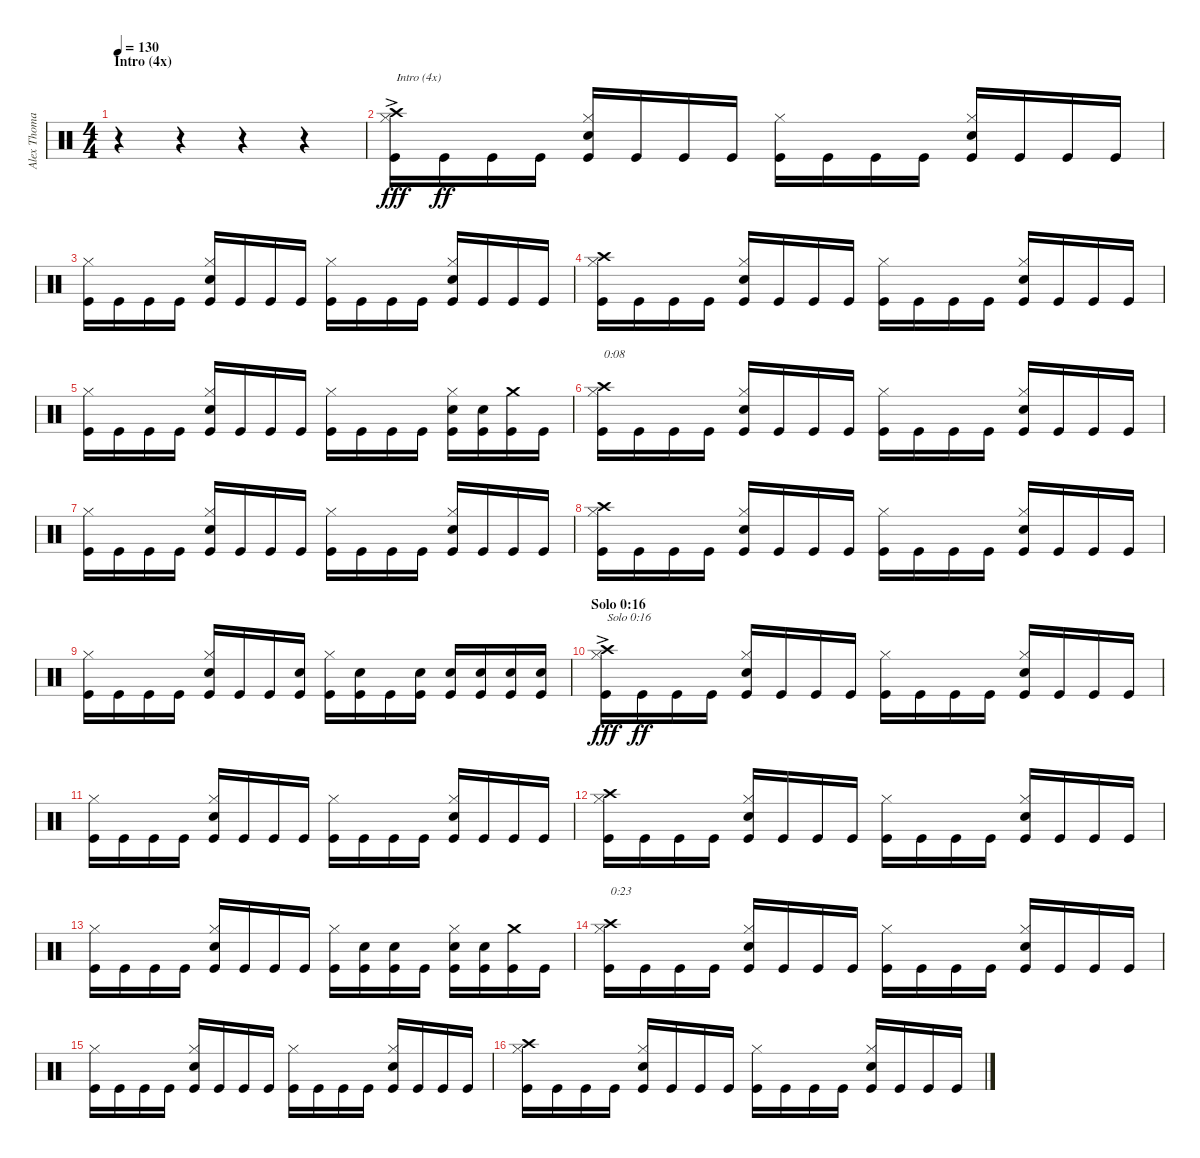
\track ("Alex Thomas (Drums)" "Alex Thoma") {instrument percussion}
\staff {score}
\articulation defaults
\ts (4 4)
\section ("" "Intro (4x)")
\tempo 130
\clef neutral
\ks c
r.4{dy fff} r.4 r.4 r.4 |
("Kick (hit)" "Hi-Hat (closed)" "Crash high (hit)"{ac}).16{txt "Intro (4x)"} "Kick (hit)".16{dy ff} "Kick (hit)".16 "Kick (hit)".16 ("Kick (hit)" "Electric Snare (hit)" "Hi-Hat (closed)").16 "Kick (hit)".16 "Kick (hit)".16 "Kick (hit)".16 ("Kick (hit)" "Hi-Hat (closed)").16 "Kick (hit)".16 "Kick (hit)".16 "Kick (hit)".16 ("Kick (hit)" "Electric Snare (hit)" "Hi-Hat (closed)").16 "Kick (hit)".16 "Kick (hit)".16 "Kick (hit)".16 |
("Kick (hit)" "Hi-Hat (closed)").16 "Kick (hit)".16 "Kick (hit)".16 "Kick (hit)".16 ("Kick (hit)" "Electric Snare (hit)" "Hi-Hat (closed)").16 "Kick (hit)".16 "Kick (hit)".16 "Kick (hit)".16 ("Kick (hit)" "Hi-Hat (closed)").16 "Kick (hit)".16 "Kick (hit)".16 "Kick (hit)".16 ("Kick (hit)" "Electric Snare (hit)" "Hi-Hat (closed)").16 "Kick (hit)".16 "Kick (hit)".16 "Kick (hit)".16 |
("Kick (hit)" "Hi-Hat (closed)" "Crash high (hit)").16 "Kick (hit)".16 "Kick (hit)".16 "Kick (hit)".16 ("Kick (hit)" "Electric Snare (hit)" "Hi-Hat (closed)").16 "Kick (hit)".16 "Kick (hit)".16 "Kick (hit)".16 ("Kick (hit)" "Hi-Hat (closed)").16 "Kick (hit)".16 "Kick (hit)".16 "Kick (hit)".16 ("Kick (hit)" "Electric Snare (hit)" "Hi-Hat (closed)").16 "Kick (hit)".16 "Kick (hit)".16 "Kick (hit)".16 |
("Kick (hit)" "Hi-Hat (closed)").16 "Kick (hit)".16 "Kick (hit)".16 "Kick (hit)".16 ("Kick (hit)" "Electric Snare (hit)" "Hi-Hat (closed)").16 "Kick (hit)".16 "Kick (hit)".16 "Kick (hit)".16 ("Kick (hit)" "Hi-Hat (closed)").16 "Kick (hit)".16 "Kick (hit)".16 "Kick (hit)".16 ("Kick (hit)" "Electric Snare (hit)" "Hi-Hat (closed)").16 ("Kick (hit)" "Electric Snare (hit)").16 ("Kick (hit)" "Crash medium (hit)").16 "Kick (hit)".16 |
("Kick (hit)" "Hi-Hat (closed)" "Crash high (hit)").16{txt "0:08"} "Kick (hit)".16 "Kick (hit)".16 "Kick (hit)".16 ("Kick (hit)" "Electric Snare (hit)" "Hi-Hat (closed)").16 "Kick (hit)".16 "Kick (hit)".16 "Kick (hit)".16 ("Kick (hit)" "Hi-Hat (closed)").16 "Kick (hit)".16 "Kick (hit)".16 "Kick (hit)".16 ("Kick (hit)" "Electric Snare (hit)" "Hi-Hat (closed)").16 "Kick (hit)".16 "Kick (hit)".16 "Kick (hit)".16 |
("Kick (hit)" "Hi-Hat (closed)").16 "Kick (hit)".16 "Kick (hit)".16 "Kick (hit)".16 ("Kick (hit)" "Electric Snare (hit)" "Hi-Hat (closed)").16 "Kick (hit)".16 "Kick (hit)".16 "Kick (hit)".16 ("Kick (hit)" "Hi-Hat (closed)").16 "Kick (hit)".16 "Kick (hit)".16 "Kick (hit)".16 ("Kick (hit)" "Electric Snare (hit)" "Hi-Hat (closed)").16 "Kick (hit)".16 "Kick (hit)".16 "Kick (hit)".16 |
("Kick (hit)" "Hi-Hat (closed)" "Crash high (hit)").16 "Kick (hit)".16 "Kick (hit)".16 "Kick (hit)".16 ("Kick (hit)" "Electric Snare (hit)" "Hi-Hat (closed)").16 "Kick (hit)".16 "Kick (hit)".16 "Kick (hit)".16 ("Kick (hit)" "Hi-Hat (closed)").16 "Kick (hit)".16 "Kick (hit)".16 "Kick (hit)".16 ("Kick (hit)" "Electric Snare (hit)" "Hi-Hat (closed)").16 "Kick (hit)".16 "Kick (hit)".16 "Kick (hit)".16 |
("Kick (hit)" "Hi-Hat (closed)").16 "Kick (hit)".16 "Kick (hit)".16 "Kick (hit)".16 ("Kick (hit)" "Electric Snare (hit)" "Hi-Hat (closed)").16 "Kick (hit)".16 "Kick (hit)".16 ("Kick (hit)" "Electric Snare (hit)").16 ("Kick (hit)" "Hi-Hat (closed)").16 ("Kick (hit)" "Electric Snare (hit)").16 "Kick (hit)".16 ("Kick (hit)" "Electric Snare (hit)").16 ("Kick (hit)" "Electric Snare (hit)").16 ("Kick (hit)" "Electric Snare (hit)").16 ("Kick (hit)" "Electric Snare (hit)").16 ("Kick (hit)" "Electric Snare (hit)").16 |
\section ("" "Solo 0:16")
("Kick (hit)" "Hi-Hat (closed)" "Crash high (hit)"{ac}).16{txt "Solo 0:16" dy fff} "Kick (hit)".16{dy ff} "Kick (hit)".16 "Kick (hit)".16 ("Kick (hit)" "Electric Snare (hit)" "Hi-Hat (closed)").16 "Kick (hit)".16 "Kick (hit)".16 "Kick (hit)".16 ("Kick (hit)" "Hi-Hat (closed)").16 "Kick (hit)".16 "Kick (hit)".16 "Kick (hit)".16 ("Kick (hit)" "Electric Snare (hit)" "Hi-Hat (closed)").16 "Kick (hit)".16 "Kick (hit)".16 "Kick (hit)".16 |
("Kick (hit)" "Hi-Hat (closed)").16 "Kick (hit)".16 "Kick (hit)".16 "Kick (hit)".16 ("Kick (hit)" "Electric Snare (hit)" "Hi-Hat (closed)").16 "Kick (hit)".16 "Kick (hit)".16 "Kick (hit)".16 ("Kick (hit)" "Hi-Hat (closed)").16 "Kick (hit)".16 "Kick (hit)".16 "Kick (hit)".16 ("Kick (hit)" "Electric Snare (hit)" "Hi-Hat (closed)").16 "Kick (hit)".16 "Kick (hit)".16 "Kick (hit)".16 |
("Kick (hit)" "Hi-Hat (closed)" "Crash high (hit)").16 "Kick (hit)".16 "Kick (hit)".16 "Kick (hit)".16 ("Kick (hit)" "Electric Snare (hit)" "Hi-Hat (closed)").16 "Kick (hit)".16 "Kick (hit)".16 "Kick (hit)".16 ("Kick (hit)" "Hi-Hat (closed)").16 "Kick (hit)".16 "Kick (hit)".16 "Kick (hit)".16 ("Kick (hit)" "Electric Snare (hit)" "Hi-Hat (closed)").16 "Kick (hit)".16 "Kick (hit)".16 "Kick (hit)".16 |
("Kick (hit)" "Hi-Hat (closed)").16 "Kick (hit)".16 "Kick (hit)".16 "Kick (hit)".16 ("Kick (hit)" "Electric Snare (hit)" "Hi-Hat (closed)").16 "Kick (hit)".16 "Kick (hit)".16 "Kick (hit)".16 ("Kick (hit)" "Hi-Hat (closed)").16 ("Kick (hit)" "Electric Snare (hit)").16 ("Kick (hit)" "Electric Snare (hit)").16 "Kick (hit)".16 ("Kick (hit)" "Electric Snare (hit)" "Hi-Hat (closed)").16 ("Kick (hit)" "Electric Snare (hit)").16 ("Kick (hit)" "Crash medium (hit)").16 "Kick (hit)".16 |
("Kick (hit)" "Hi-Hat (closed)" "Crash high (hit)").16{txt "0:23"} "Kick (hit)".16 "Kick (hit)".16 "Kick (hit)".16 ("Kick (hit)" "Electric Snare (hit)" "Hi-Hat (closed)").16 "Kick (hit)".16 "Kick (hit)".16 "Kick (hit)".16 ("Kick (hit)" "Hi-Hat (closed)").16 "Kick (hit)".16 "Kick (hit)".16 "Kick (hit)".16 ("Kick (hit)" "Electric Snare (hit)" "Hi-Hat (closed)").16 "Kick (hit)".16 "Kick (hit)".16 "Kick (hit)".16 |
("Kick (hit)" "Hi-Hat (closed)").16 "Kick (hit)".16 "Kick (hit)".16 "Kick (hit)".16 ("Kick (hit)" "Electric Snare (hit)" "Hi-Hat (closed)").16 "Kick (hit)".16 "Kick (hit)".16 "Kick (hit)".16 ("Kick (hit)" "Hi-Hat (closed)").16 "Kick (hit)".16 "Kick (hit)".16 "Kick (hit)".16 ("Kick (hit)" "Electric Snare (hit)" "Hi-Hat (closed)").16 "Kick (hit)".16 "Kick (hit)".16 "Kick (hit)".16 |
("Kick (hit)" "Hi-Hat (closed)" "Crash high (hit)").16 "Kick (hit)".16 "Kick (hit)".16 "Kick (hit)".16 ("Kick (hit)" "Electric Snare (hit)" "Hi-Hat (closed)").16 "Kick (hit)".16 "Kick (hit)".16 "Kick (hit)".16 ("Kick (hit)" "Hi-Hat (closed)").16 "Kick (hit)".16 "Kick (hit)".16 "Kick (hit)".16 ("Kick (hit)" "Electric Snare (hit)" "Hi-Hat (closed)").16 "Kick (hit)".16 "Kick (hit)".16 "Kick (hit)".16
